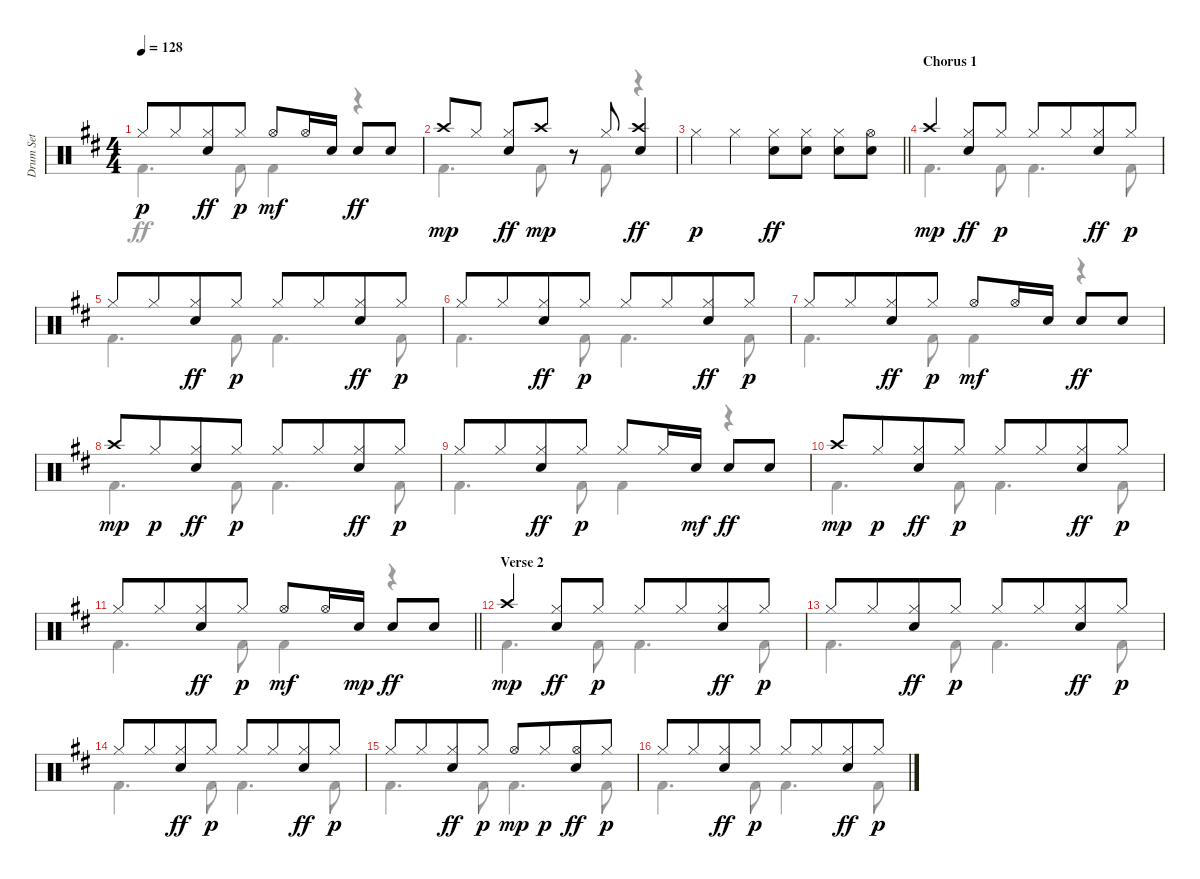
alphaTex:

\track ("Drum Set" "Drum Set") {instrument percussion}
\staff {score}
\articulation defaults
\voice
\ts (4 4)
\tempo 128
\clef neutral
\ks bminor "Hi-Hat (closed)".8{dy p} "Hi-Hat (closed)".8{beam merge}
("Hi-Hat (closed)" "Electric Snare (hit)").8{dy ff} "Hi-Hat (closed)".8{dy p} "Hi-Hat (open)".8{dy mf} "Hi-Hat (open)".16 "Electric Snare (hit)".16{beam split} "Electric Snare (hit)".8{dy ff} "Electric Snare (hit)".8 |
"Crash high (hit)".8{dy mp} "Hi-Hat (closed)".8 ("Hi-Hat (closed)" "Electric Snare (hit)").8{dy ff} "Crash high (hit)".8{dy mp} r.8 "Hi-Hat (closed)".8 ("Crash high (hit)" "Electric Snare (hit)").4{dy ff} |
\barLineRight lightlight "Hi-Hat (closed)".4{dy p} "Hi-Hat (closed)".4
("Hi-Hat (closed)" "Electric Snare (hit)").8{dy ff} ("Hi-Hat (closed)" "Electric Snare (hit)").8 ("Hi-Hat (closed)" "Electric Snare (hit)").8 ("Hi-Hat (open)" "Electric Snare (hit)").8 |
\section ("" "Chorus 1")
"Crash high (hit)".4{dy mp} ("Hi-Hat (closed)" "Electric Snare (hit)").8{dy ff} "Hi-Hat (closed)".8{dy p} "Hi-Hat (closed)".8 "Hi-Hat (closed)".8{beam merge} ("Hi-Hat (closed)" "Electric Snare (hit)").8{dy ff} "Hi-Hat (closed)".8{dy p} |
"Hi-Hat (closed)".8 "Hi-Hat (closed)".8{beam merge} ("Hi-Hat (closed)" "Electric Snare (hit)").8{dy ff} "Hi-Hat (closed)".8{dy p} "Hi-Hat (closed)".8 "Hi-Hat (closed)".8{beam merge} ("Hi-Hat (closed)" "Electric Snare (hit)").8{dy ff} "Hi-Hat (closed)".8{dy p} |
"Hi-Hat (closed)".8 "Hi-Hat (closed)".8{beam merge} ("Hi-Hat (closed)" "Electric Snare (hit)").8{dy ff} "Hi-Hat (closed)".8{dy p} "Hi-Hat (closed)".8 "Hi-Hat (closed)".8{beam merge} ("Hi-Hat (closed)" "Electric Snare (hit)").8{dy ff} "Hi-Hat (closed)".8{dy p} |
"Hi-Hat (closed)".8 "Hi-Hat (closed)".8{beam merge} ("Hi-Hat (closed)" "Electric Snare (hit)").8{dy ff} "Hi-Hat (closed)".8{dy p} "Hi-Hat (open)".8{dy mf} "Hi-Hat (open)".16 "Electric Snare (hit)".16{beam split} "Electric Snare (hit)".8{dy ff} "Electric Snare (hit)".8 |
"Crash high (hit)".8{dy mp} "Hi-Hat (closed)".8{dy p beam merge} ("Hi-Hat (closed)" "Electric Snare (hit)").8{dy ff} "Hi-Hat (closed)".8{dy p} "Hi-Hat (closed)".8 "Hi-Hat (closed)".8{beam merge} ("Hi-Hat (closed)" "Electric Snare (hit)").8{dy ff} "Hi-Hat (closed)".8{dy p} |
"Hi-Hat (closed)".8 "Hi-Hat (closed)".8{beam merge} ("Hi-Hat (closed)" "Electric Snare (hit)").8{dy ff} "Hi-Hat (closed)".8{dy p} "Hi-Hat (closed)".8 "Hi-Hat (closed)".16 "Electric Snare (hit)".16{dy mf beam split} "Electric Snare (hit)".8{dy ff} "Electric Snare (hit)".8 |
"Crash high (hit)".8{dy mp} "Hi-Hat (closed)".8{dy p beam merge} ("Hi-Hat (closed)" "Electric Snare (hit)").8{dy ff} "Hi-Hat (closed)".8{dy p} "Hi-Hat (closed)".8 "Hi-Hat (closed)".8{beam merge} ("Hi-Hat (closed)" "Electric Snare (hit)").8{dy ff} "Hi-Hat (closed)".8{dy p} |
\barLineRight lightlight "Hi-Hat (closed)".8 "Hi-Hat (closed)".8{beam merge}
("Hi-Hat (closed)" "Electric Snare (hit)").8{dy ff} "Hi-Hat (closed)".8{dy p} "Hi-Hat (open)".8{dy mf} "Hi-Hat (open)".16 "Electric Snare (hit)".16{dy mp beam split} "Electric Snare (hit)".8{dy ff} "Electric Snare (hit)".8 |
\section ("" "Verse 2")
"Crash high (hit)".4{dy mp} ("Hi-Hat (closed)" "Electric Snare (hit)").8{dy ff} "Hi-Hat (closed)".8{dy p} "Hi-Hat (closed)".8 "Hi-Hat (closed)".8{beam merge} ("Hi-Hat (closed)" "Electric Snare (hit)").8{dy ff} "Hi-Hat (closed)".8{dy p} |
"Hi-Hat (closed)".8 "Hi-Hat (closed)".8{beam merge} ("Hi-Hat (closed)" "Electric Snare (hit)").8{dy ff} "Hi-Hat (closed)".8{dy p} "Hi-Hat (closed)".8 "Hi-Hat (closed)".8{beam merge} ("Hi-Hat (closed)" "Electric Snare (hit)").8{dy ff} "Hi-Hat (closed)".8{dy p} |
"Hi-Hat (closed)".8 "Hi-Hat (closed)".8{beam merge} ("Hi-Hat (closed)" "Electric Snare (hit)").8{dy ff} "Hi-Hat (closed)".8{dy p} "Hi-Hat (closed)".8 "Hi-Hat (closed)".8{beam merge} ("Hi-Hat (closed)" "Electric Snare (hit)").8{dy ff} "Hi-Hat (closed)".8{dy p} |
"Hi-Hat (closed)".8 "Hi-Hat (closed)".8{beam merge} ("Hi-Hat (closed)" "Electric Snare (hit)").8{dy ff} "Hi-Hat (closed)".8{dy p} "Hi-Hat (open)".8{dy mp} "Hi-Hat (closed)".8{dy p beam merge} ("Hi-Hat (open)" "Electric Snare (hit)").8{dy ff} "Hi-Hat (closed)".8{dy p} |
"Hi-Hat (closed)".8 "Hi-Hat (closed)".8{beam merge} ("Hi-Hat (closed)" "Electric Snare (hit)").8{dy ff} "Hi-Hat (closed)".8{dy p} "Hi-Hat (closed)".8 "Hi-Hat (closed)".8{beam merge} ("Hi-Hat (closed)" "Electric Snare (hit)").8{dy ff} "Hi-Hat (closed)".8{dy p}
\voice
\clef neutral
\ottava regular
\simile none
\ks bminor "Kick (hit) 2".4{d dy ff} "Kick (hit) 2".8 "Kick (hit) 2".4
r.4 |
"Kick (hit) 2".4{d} "Kick (hit) 2".8 r.8 "Kick (hit) 2".8 r.4 |
\barLineRight lightlight
|
"Kick (hit) 2".4{d} "Kick (hit) 2".8 "Kick (hit) 2".4{d} "Kick (hit) 2".8 |
"Kick (hit) 2".4{d} "Kick (hit) 2".8 "Kick (hit) 2".4{d} "Kick (hit) 2".8 |
"Kick (hit) 2".4{d} "Kick (hit) 2".8 "Kick (hit) 2".4{d} "Kick (hit) 2".8 |
"Kick (hit) 2".4{d} "Kick (hit) 2".8 "Kick (hit) 2".4 r.4 |
"Kick (hit) 2".4{d} "Kick (hit) 2".8 "Kick (hit) 2".4{d} "Kick (hit) 2".8 |
"Kick (hit) 2".4{d} "Kick (hit) 2".8 "Kick (hit) 2".4 r.4 |
"Kick (hit) 2".4{d} "Kick (hit) 2".8 "Kick (hit) 2".4{d} "Kick (hit) 2".8 |
\barLineRight lightlight "Kick (hit) 2".4{d} "Kick (hit) 2".8 "Kick (hit) 2".4
r.4 |
"Kick (hit) 2".4{d} "Kick (hit) 2".8 "Kick (hit) 2".4{d} "Kick (hit) 2".8 |
"Kick (hit) 2".4{d} "Kick (hit) 2".8 "Kick (hit) 2".4{d} "Kick (hit) 2".8 |
"Kick (hit) 2".4{d} "Kick (hit) 2".8 "Kick (hit) 2".4{d} "Kick (hit) 2".8 |
"Kick (hit) 2".4{d} "Kick (hit) 2".8 "Kick (hit) 2".4{d} "Kick (hit) 2".8 |
"Kick (hit) 2".4{d} "Kick (hit) 2".8 "Kick (hit) 2".4{d} "Kick (hit) 2".8
